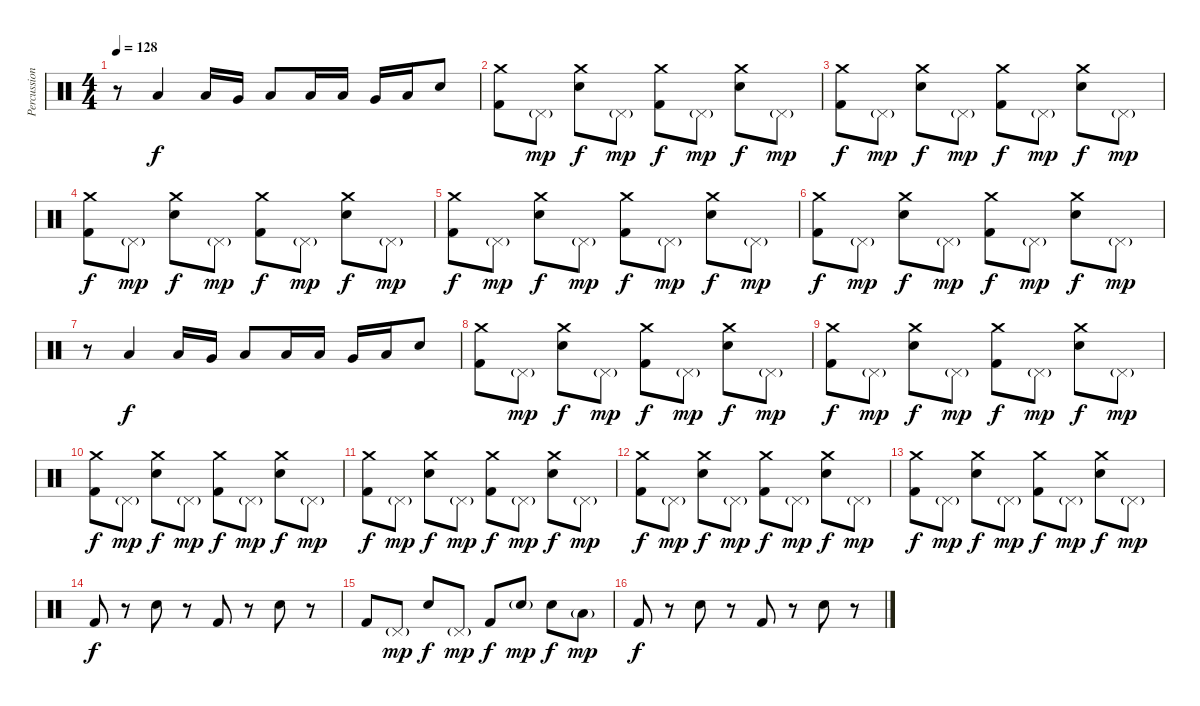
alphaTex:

\track ("Percussions" "Percussion") {instrument percussion}
\staff {score}
\articulation defaults
\ts (4 4)
\tempo 128
\clef neutral
\ks c
r.8{dy mp} "Low Tom (hit)".4{dy f} "Low Tom (hit)".16 "Very Low Tom (hit)".16 "Low Floor Tom (hit)".8 "Low Tom (hit)".16 "Low Tom (hit)".16 "Very Low Tom (hit)".16 "Low Tom (hit)".16 "Electric Snare (hit)".8 |
("Kick (hit) 2" "Crash medium (hit)").8 "Pedal Hi-Hat (hit)"{g}.8{dy mp} ("Electric Snare (hit)" "Crash medium (hit)").8{dy f} "Pedal Hi-Hat (hit)"{g}.8{dy mp} ("Kick (hit) 2" "Crash medium (hit)").8{dy f} "Pedal Hi-Hat (hit)"{g}.8{dy mp} ("Electric Snare (hit)" "Crash medium (hit)").8{dy f} "Pedal Hi-Hat (hit)"{g}.8{dy mp} |
("Kick (hit) 2" "Crash medium (hit)").8{dy f} "Pedal Hi-Hat (hit)"{g}.8{dy mp} ("Electric Snare (hit)" "Crash medium (hit)").8{dy f} "Pedal Hi-Hat (hit)"{g}.8{dy mp} ("Kick (hit) 2" "Crash medium (hit)").8{dy f} "Pedal Hi-Hat (hit)"{g}.8{dy mp} ("Electric Snare (hit)" "Crash medium (hit)").8{dy f} "Pedal Hi-Hat (hit)"{g}.8{dy mp} |
("Kick (hit) 2" "Crash medium (hit)").8{dy f} "Pedal Hi-Hat (hit)"{g}.8{dy mp} ("Electric Snare (hit)" "Crash medium (hit)").8{dy f} "Pedal Hi-Hat (hit)"{g}.8{dy mp} ("Kick (hit) 2" "Crash medium (hit)").8{dy f} "Pedal Hi-Hat (hit)"{g}.8{dy mp} ("Electric Snare (hit)" "Crash medium (hit)").8{dy f} "Pedal Hi-Hat (hit)"{g}.8{dy mp} |
("Kick (hit) 2" "Crash medium (hit)").8{dy f} "Pedal Hi-Hat (hit)"{g}.8{dy mp} ("Electric Snare (hit)" "Crash medium (hit)").8{dy f} "Pedal Hi-Hat (hit)"{g}.8{dy mp} ("Kick (hit) 2" "Crash medium (hit)").8{dy f} "Pedal Hi-Hat (hit)"{g}.8{dy mp} ("Electric Snare (hit)" "Crash medium (hit)").8{dy f} "Pedal Hi-Hat (hit)"{g}.8{dy mp} |
("Kick (hit) 2" "Crash medium (hit)").8{dy f} "Pedal Hi-Hat (hit)"{g}.8{dy mp} ("Electric Snare (hit)" "Crash medium (hit)").8{dy f} "Pedal Hi-Hat (hit)"{g}.8{dy mp} ("Kick (hit) 2" "Crash medium (hit)").8{dy f} "Pedal Hi-Hat (hit)"{g}.8{dy mp} ("Electric Snare (hit)" "Crash medium (hit)").8{dy f} "Pedal Hi-Hat (hit)"{g}.8{dy mp} |
r.8 "Low Tom (hit)".4{dy f} "Low Tom (hit)".16 "Very Low Tom (hit)".16 "Low Floor Tom (hit)".8 "Low Tom (hit)".16 "Low Tom (hit)".16 "Very Low Tom (hit)".16 "Low Tom (hit)".16 "Electric Snare (hit)".8 |
("Kick (hit) 2" "Crash medium (hit)").8 "Pedal Hi-Hat (hit)"{g}.8{dy mp} ("Electric Snare (hit)" "Crash medium (hit)").8{dy f} "Pedal Hi-Hat (hit)"{g}.8{dy mp} ("Kick (hit) 2" "Crash medium (hit)").8{dy f} "Pedal Hi-Hat (hit)"{g}.8{dy mp} ("Electric Snare (hit)" "Crash medium (hit)").8{dy f} "Pedal Hi-Hat (hit)"{g}.8{dy mp} |
("Kick (hit) 2" "Crash medium (hit)").8{dy f} "Pedal Hi-Hat (hit)"{g}.8{dy mp} ("Electric Snare (hit)" "Crash medium (hit)").8{dy f} "Pedal Hi-Hat (hit)"{g}.8{dy mp} ("Kick (hit) 2" "Crash medium (hit)").8{dy f} "Pedal Hi-Hat (hit)"{g}.8{dy mp} ("Electric Snare (hit)" "Crash medium (hit)").8{dy f} "Pedal Hi-Hat (hit)"{g}.8{dy mp} |
("Kick (hit) 2" "Crash medium (hit)").8{dy f} "Pedal Hi-Hat (hit)"{g}.8{dy mp} ("Electric Snare (hit)" "Crash medium (hit)").8{dy f} "Pedal Hi-Hat (hit)"{g}.8{dy mp} ("Kick (hit) 2" "Crash medium (hit)").8{dy f} "Pedal Hi-Hat (hit)"{g}.8{dy mp} ("Electric Snare (hit)" "Crash medium (hit)").8{dy f} "Pedal Hi-Hat (hit)"{g}.8{dy mp} |
("Kick (hit) 2" "Crash medium (hit)").8{dy f} "Pedal Hi-Hat (hit)"{g}.8{dy mp} ("Electric Snare (hit)" "Crash medium (hit)").8{dy f} "Pedal Hi-Hat (hit)"{g}.8{dy mp} ("Kick (hit) 2" "Crash medium (hit)").8{dy f} "Pedal Hi-Hat (hit)"{g}.8{dy mp} ("Electric Snare (hit)" "Crash medium (hit)").8{dy f} "Pedal Hi-Hat (hit)"{g}.8{dy mp} |
("Kick (hit) 2" "Crash medium (hit)").8{dy f} "Pedal Hi-Hat (hit)"{g}.8{dy mp} ("Electric Snare (hit)" "Crash medium (hit)").8{dy f} "Pedal Hi-Hat (hit)"{g}.8{dy mp} ("Kick (hit) 2" "Crash medium (hit)").8{dy f} "Pedal Hi-Hat (hit)"{g}.8{dy mp} ("Electric Snare (hit)" "Crash medium (hit)").8{dy f} "Pedal Hi-Hat (hit)"{g}.8{dy mp} |
("Kick (hit) 2" "Crash medium (hit)").8{dy f} "Pedal Hi-Hat (hit)"{g}.8{dy mp} ("Electric Snare (hit)" "Crash medium (hit)").8{dy f} "Pedal Hi-Hat (hit)"{g}.8{dy mp} ("Kick (hit) 2" "Crash medium (hit)").8{dy f} "Pedal Hi-Hat (hit)"{g}.8{dy mp} ("Electric Snare (hit)" "Crash medium (hit)").8{dy f} "Pedal Hi-Hat (hit)"{g}.8{dy mp} |
"Kick (hit) 2".8{dy f} r.8 "Electric Snare (hit)".8 r.8 "Kick (hit) 2".8 r.8 "Electric Snare (hit)".8 r.8 |
"Kick (hit) 2".8 "Pedal Hi-Hat (hit)"{g}.8{dy mp} "Electric Snare (hit)".8{dy f} "Pedal Hi-Hat (hit)"{g}.8{dy mp} "Kick (hit) 2".8{dy f} "Electric Snare (hit)"{g}.8{dy mp} "Electric Snare (hit)".8{dy f} "Low Tom (hit)"{g}.8{dy mp} |
"Kick (hit) 2".8{dy f} r.8 "Electric Snare (hit)".8 r.8 "Kick (hit) 2".8 r.8 "Electric Snare (hit)".8 r.8
